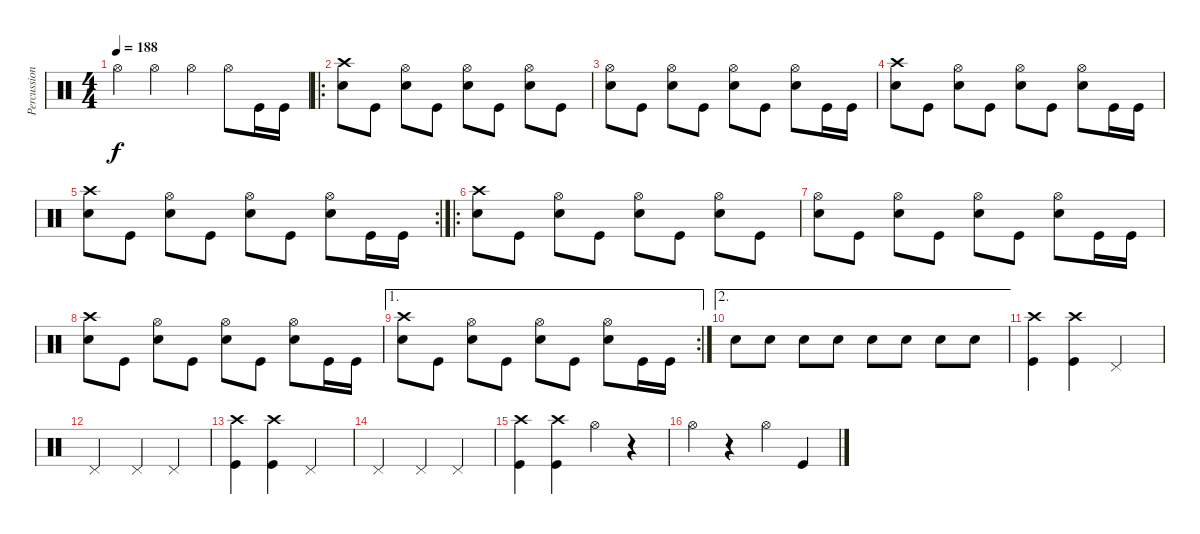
\track ("Percussion" "Percussion") {instrument percussion}
\staff {score}
\articulation defaults
\ts (4 4)
\tempo 188
\clef neutral
\ks c "Hi-Hat (open)".4{dy f} "Hi-Hat (open)".4 "Hi-Hat (open)".4 "Hi-Hat (open)".8 "Kick (hit)".16 "Kick (hit)".16
|
\ro
("Snare (hit) 2" "Crash high (hit)").8 "Kick (hit)".8 ("Snare (hit) 2" "Hi-Hat (open)").8 "Kick (hit)".8 ("Snare (hit) 2" "Hi-Hat (open)").8 "Kick (hit)".8 ("Snare (hit) 2" "Hi-Hat (open)").8 "Kick (hit)".8 |
("Snare (hit) 2" "Hi-Hat (open)").8 "Kick (hit)".8 ("Snare (hit) 2" "Hi-Hat (open)").8 "Kick (hit)".8 ("Snare (hit) 2" "Hi-Hat (open)").8 "Kick (hit)".8 ("Snare (hit) 2" "Hi-Hat (open)").8 "Kick (hit)".16 "Kick (hit)".16 |
("Snare (hit) 2" "Crash high (hit)").8 "Kick (hit)".8 ("Snare (hit) 2" "Hi-Hat (open)").8 "Kick (hit)".8 ("Snare (hit) 2" "Hi-Hat (open)").8 "Kick (hit)".8 ("Snare (hit) 2" "Hi-Hat (open)").8 "Kick (hit)".16 "Kick (hit)".16 |
\rc 2
("Snare (hit) 2" "Crash high (hit)").8 "Kick (hit)".8 ("Snare (hit) 2" "Hi-Hat (open)").8 "Kick (hit)".8 ("Snare (hit) 2" "Hi-Hat (open)").8 "Kick (hit)".8 ("Snare (hit) 2" "Hi-Hat (open)").8 "Kick (hit)".16 "Kick (hit)".16 |
\ro
("Snare (hit) 2" "Crash high (hit)").8 "Kick (hit)".8 ("Snare (hit) 2" "Hi-Hat (open)").8 "Kick (hit)".8 ("Snare (hit) 2" "Hi-Hat (open)").8 "Kick (hit)".8 ("Snare (hit) 2" "Hi-Hat (open)").8 "Kick (hit)".8 |
("Snare (hit) 2" "Hi-Hat (open)").8 "Kick (hit)".8 ("Snare (hit) 2" "Hi-Hat (open)").8 "Kick (hit)".8 ("Snare (hit) 2" "Hi-Hat (open)").8 "Kick (hit)".8 ("Snare (hit) 2" "Hi-Hat (open)").8 "Kick (hit)".16 "Kick (hit)".16 |
("Snare (hit) 2" "Crash high (hit)").8 "Kick (hit)".8 ("Snare (hit) 2" "Hi-Hat (open)").8 "Kick (hit)".8 ("Snare (hit) 2" "Hi-Hat (open)").8 "Kick (hit)".8 ("Snare (hit) 2" "Hi-Hat (open)").8 "Kick (hit)".16 "Kick (hit)".16 |
\ae 1
\rc 2
("Snare (hit) 2" "Crash high (hit)").8 "Kick (hit)".8 ("Snare (hit) 2" "Hi-Hat (open)").8 "Kick (hit)".8 ("Snare (hit) 2" "Hi-Hat (open)").8 "Kick (hit)".8 ("Snare (hit) 2" "Hi-Hat (open)").8 "Kick (hit)".16 "Kick (hit)".16 |
\ae 2 "Snare (hit) 2".8 "Snare (hit) 2".8 "Snare (hit) 2".8 "Snare (hit) 2".8 "Snare (hit) 2".8 "Snare (hit) 2".8 "Snare (hit) 2".8 "Snare (hit) 2".8
|
("Crash high (hit)" "Kick (hit)").4 ("Crash high (hit)" "Kick (hit)").4 "Pedal Hi-Hat (hit)".2 |
"Pedal Hi-Hat (hit)".2 "Pedal Hi-Hat (hit)".4 "Pedal Hi-Hat (hit)".4 |
("Crash high (hit)" "Kick (hit)").4 ("Crash high (hit)" "Kick (hit)").4 "Pedal Hi-Hat (hit)".2 |
"Pedal Hi-Hat (hit)".2 "Pedal Hi-Hat (hit)".4 "Pedal Hi-Hat (hit)".4 |
("Crash high (hit)" "Kick (hit)").4 ("Crash high (hit)" "Kick (hit)").4 "Hi-Hat (open)".4 r.4 |
"Hi-Hat (open)".4 r.4 "Hi-Hat (open)".4 "Kick (hit)".4
